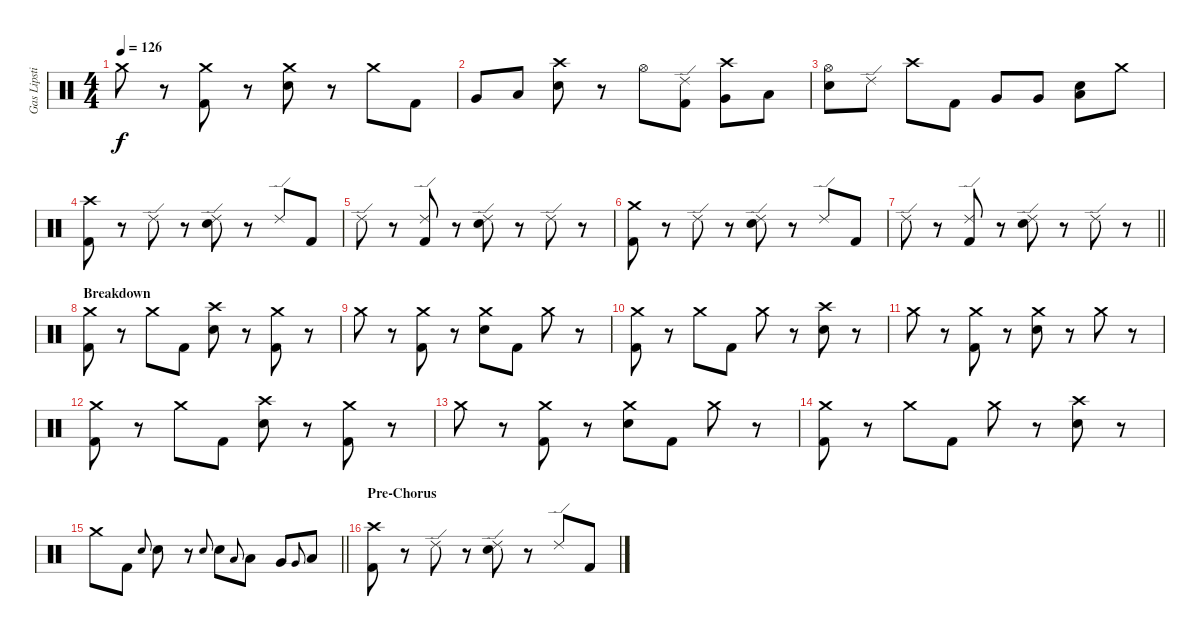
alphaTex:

\track ("Gas Lipstick (Drums)" "Gas Lipsti") {instrument percussion}
\staff {score}
\articulation defaults
\ts (4 4)
\tempo 126
\clef neutral
\ks c "Crash medium (hit)".8{dy f}
r.8 ("Crash medium (hit)" "Kick (hit) 2").8 r.8 ("Crash medium (hit)" "Snare (hit) 2").8 r.8 "Crash medium (hit)".8 "Kick (hit) 2".8 |
"Very Low Tom (hit)".8 "Low Floor Tom (hit)".8 ("Crash high (hit)" "Snare (hit) 2").8 r.8 "Hi-Hat (open)".8 ("Ride (edge) 2" "Kick (hit) 2").8 ("Crash high (hit)" "Very Low Tom (hit)").8 "Low Floor Tom (hit)".8 |
("Hi-Hat (open)" "Snare (hit) 2").8 "Ride (edge) 2".8 "Crash high (hit)".8 "Kick (hit) 2".8 "Very Low Tom (hit)".8 "Very Low Tom (hit)".8 ("Low Floor Tom (hit)" "Snare (hit) 2").8 "Crash medium (hit)".8 |
("Crash high (hit)" "Kick (hit) 2").8 r.8 "Ride (edge) 2".8 r.8 ("Ride (edge) 2" "Snare (hit) 2").8 r.8 "Ride (edge) 2".8 "Kick (hit) 2".8 |
"Ride (edge) 2".8 r.8 ("Ride (edge) 2" "Kick (hit) 2").8 r.8 ("Ride (edge) 2" "Snare (hit) 2").8 r.8 "Ride (edge) 2".8 r.8 |
("Crash medium (hit)" "Kick (hit) 2").8 r.8 "Ride (edge) 2".8 r.8 ("Ride (edge) 2" "Snare (hit) 2").8 r.8 "Ride (edge) 2".8 "Kick (hit) 2".8 |
\barLineRight lightlight "Ride (edge) 2".8
r.8 ("Ride (edge) 2" "Kick (hit) 2").8 r.8 ("Ride (edge) 2" "Snare (hit) 2").8 r.8 "Ride (edge) 2".8 r.8 |
\section ("" "Breakdown")
("Crash medium (hit)" "Kick (hit) 2").8 r.8 "Crash medium (hit)".8 "Kick (hit) 2".8 ("Crash high (hit)" "Snare (hit) 2").8 r.8 ("Crash medium (hit)" "Kick (hit) 2").8 r.8 |
"Crash medium (hit)".8 r.8 ("Crash medium (hit)" "Kick (hit) 2").8 r.8 ("Crash medium (hit)" "Snare (hit) 2").8 "Kick (hit) 2".8 "Crash medium (hit)".8 r.8 |
("Crash medium (hit)" "Kick (hit) 2").8 r.8 "Crash medium (hit)".8 "Kick (hit) 2".8 "Crash medium (hit)".8 r.8 ("Crash high (hit)" "Snare (hit) 2").8 r.8 |
"Crash medium (hit)".8 r.8 ("Crash medium (hit)" "Kick (hit) 2").8 r.8 ("Crash medium (hit)" "Snare (hit) 2").8 r.8 "Crash medium (hit)".8 r.8 |
("Crash medium (hit)" "Kick (hit) 2").8 r.8 "Crash medium (hit)".8 "Kick (hit) 2".8 ("Crash high (hit)" "Snare (hit) 2").8 r.8 ("Crash medium (hit)" "Kick (hit) 2").8 r.8 |
"Crash medium (hit)".8 r.8 ("Crash medium (hit)" "Kick (hit) 2").8 r.8 ("Crash medium (hit)" "Snare (hit) 2").8 "Kick (hit) 2".8 "Crash medium (hit)".8 r.8 |
("Crash medium (hit)" "Kick (hit) 2").8 r.8 "Crash medium (hit)".8 "Kick (hit) 2".8 "Crash medium (hit)".8 r.8 ("Crash high (hit)" "Snare (hit) 2").8 r.8 |
\barLineRight lightlight "Crash medium (hit)".8 "Kick (hit) 2".8 "Snare (hit) 2".8{gr onbeat} "Snare (hit) 2".8
r.8 "Snare (hit) 2".8{gr onbeat} "Snare (hit) 2".8 "Low Tom (hit)".8{gr onbeat} "Low Tom (hit)".8 "Very Low Tom (hit)".8 "Very Low Tom (hit)".8{gr onbeat} "Low Floor Tom (hit)".8 |
\section ("" "Pre-Chorus")
("Crash high (hit)" "Kick (hit) 2").8 r.8 "Ride (edge) 2".8 r.8 ("Ride (edge) 2" "Snare (hit) 2").8 r.8 "Ride (edge) 2".8 "Kick (hit) 2".8
